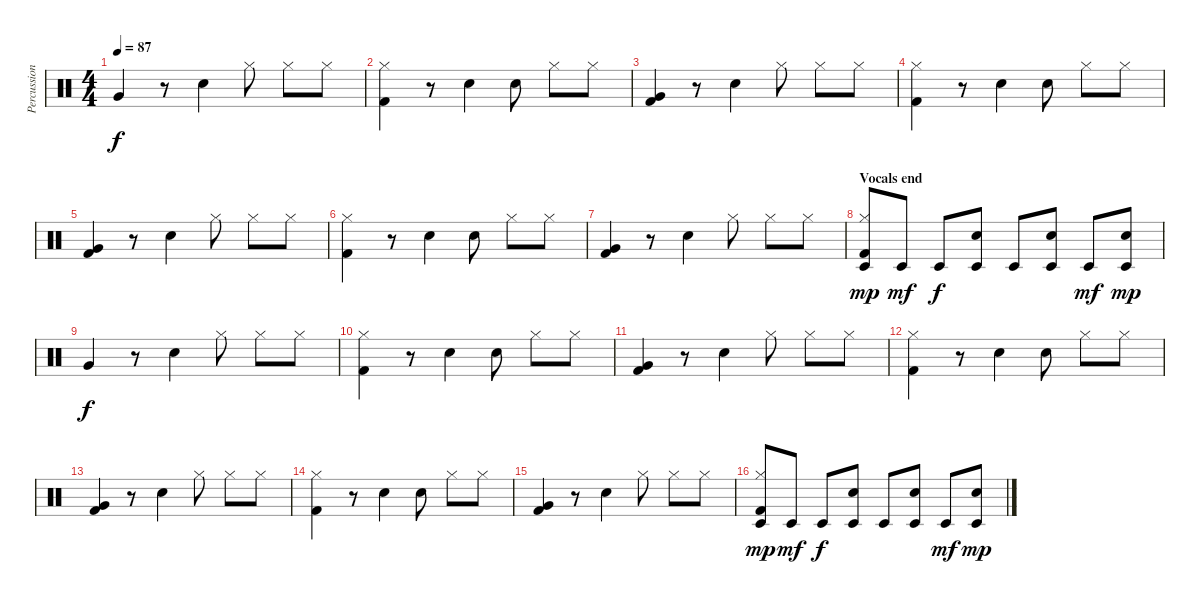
\track ("Percussion" "Percussion") {instrument percussion}
\staff {score}
\articulation defaults
\ts (4 4)
\tempo 87
\clef neutral
\ks c "Very Low Tom (hit)".4{dy f}
r.8 "Electric Snare (hit)".4 "Hi-Hat (closed)".8 "Hi-Hat (closed)".8 "Hi-Hat (closed)".8 |
("Hi-Hat (closed)" "Kick (hit) 2").4 r.8 "Electric Snare (hit)".4 "Electric Snare (hit)".8 "Hi-Hat (closed)".8 "Hi-Hat (closed)".8 |
("Very Low Tom (hit)" "Kick (hit) 2").4 r.8 "Electric Snare (hit)".4 "Hi-Hat (closed)".8 "Hi-Hat (closed)".8 "Hi-Hat (closed)".8 |
("Hi-Hat (closed)" "Kick (hit) 2").4 r.8 "Electric Snare (hit)".4 "Electric Snare (hit)".8 "Hi-Hat (closed)".8 "Hi-Hat (closed)".8 |
("Very Low Tom (hit)" "Kick (hit) 2").4 r.8 "Electric Snare (hit)".4 "Hi-Hat (closed)".8 "Hi-Hat (closed)".8 "Hi-Hat (closed)".8 |
("Hi-Hat (closed)" "Kick (hit) 2").4 r.8 "Electric Snare (hit)".4 "Electric Snare (hit)".8 "Hi-Hat (closed)".8 "Hi-Hat (closed)".8 |
("Very Low Tom (hit)" "Kick (hit) 2").4 r.8 "Electric Snare (hit)".4 "Hi-Hat (closed)".8 "Hi-Hat (closed)".8 "Hi-Hat (closed)".8 |
\section ("" "Vocals end")
("Hi-Hat (closed)" "Timbale low (hit)" "Kick (hit) 2").8{dy mp} "Timbale low (hit)".8{dy mf} "Timbale low (hit)".8{dy f} ("Electric Snare (hit)" "Timbale low (hit)").8 "Timbale low (hit)".8 ("Electric Snare (hit)" "Timbale low (hit)").8 "Timbale low (hit)".8{dy mf} ("Electric Snare (hit)" "Timbale low (hit)").8{dy mp} |
"Very Low Tom (hit)".4{dy f} r.8 "Electric Snare (hit)".4 "Hi-Hat (closed)".8 "Hi-Hat (closed)".8 "Hi-Hat (closed)".8 |
("Hi-Hat (closed)" "Kick (hit) 2").4 r.8 "Electric Snare (hit)".4 "Electric Snare (hit)".8 "Hi-Hat (closed)".8 "Hi-Hat (closed)".8 |
("Very Low Tom (hit)" "Kick (hit) 2").4 r.8 "Electric Snare (hit)".4 "Hi-Hat (closed)".8 "Hi-Hat (closed)".8 "Hi-Hat (closed)".8 |
("Hi-Hat (closed)" "Kick (hit) 2").4 r.8 "Electric Snare (hit)".4 "Electric Snare (hit)".8 "Hi-Hat (closed)".8 "Hi-Hat (closed)".8 |
("Very Low Tom (hit)" "Kick (hit) 2").4 r.8 "Electric Snare (hit)".4 "Hi-Hat (closed)".8 "Hi-Hat (closed)".8 "Hi-Hat (closed)".8 |
("Hi-Hat (closed)" "Kick (hit) 2").4 r.8 "Electric Snare (hit)".4 "Electric Snare (hit)".8 "Hi-Hat (closed)".8 "Hi-Hat (closed)".8 |
("Very Low Tom (hit)" "Kick (hit) 2").4 r.8 "Electric Snare (hit)".4 "Hi-Hat (closed)".8 "Hi-Hat (closed)".8 "Hi-Hat (closed)".8 |
("Hi-Hat (closed)" "Timbale low (hit)" "Kick (hit) 2").8{dy mp} "Timbale low (hit)".8{dy mf} "Timbale low (hit)".8{dy f} ("Electric Snare (hit)" "Timbale low (hit)").8 "Timbale low (hit)".8 ("Electric Snare (hit)" "Timbale low (hit)").8 "Timbale low (hit)".8{dy mf} ("Electric Snare (hit)" "Timbale low (hit)").8{dy mp}
